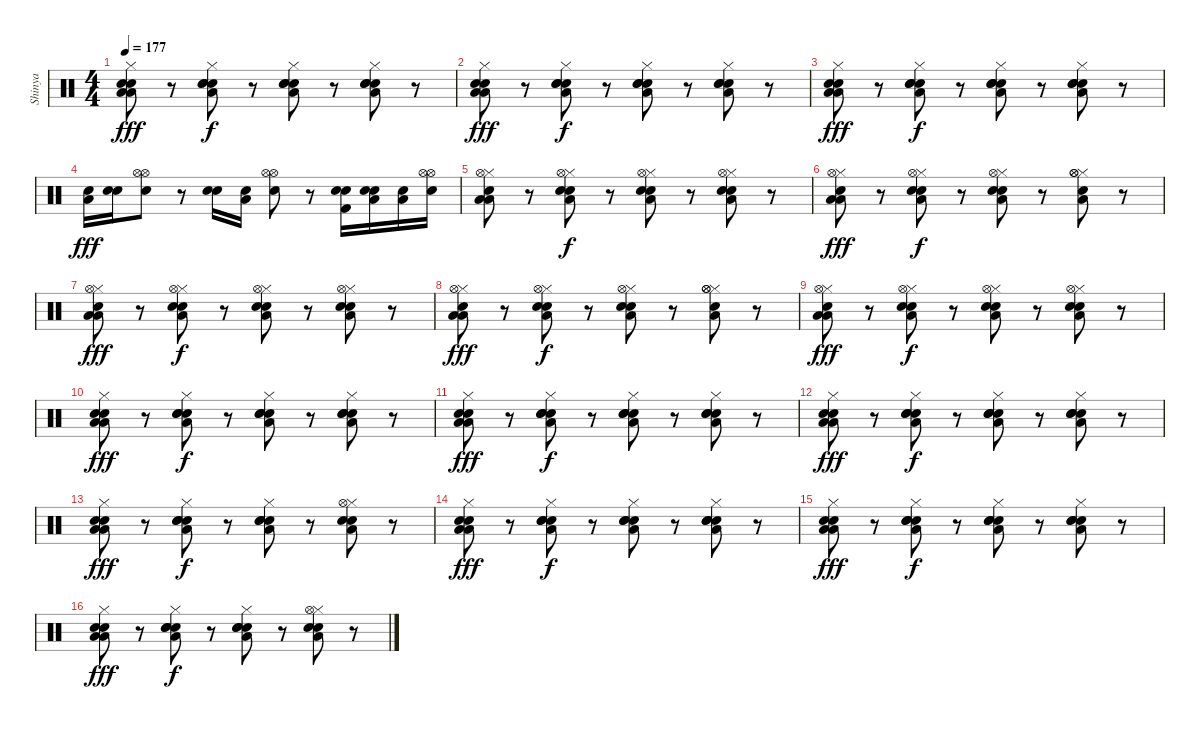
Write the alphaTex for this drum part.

\track ("Shinya " "Shinya ") {instrument percussion}
\staff {score}
\articulation defaults
\ts (4 4)
\tempo 177
\clef neutral
\ks c
("Hi-Hat (closed)" "Electric Snare (hit)" "Low Tom (hit)" "Electric Snare (hit)" "Low Tom (hit)").8{dy fff} r.8 ("Hi-Hat (closed)" "Electric Snare (hit)" "Low Tom (hit)" "Electric Snare (hit)" "Snare (hit) 2").8{dy f} r.8 ("Hi-Hat (closed)" "Electric Snare (hit)" "Electric Snare (hit)" "Snare (hit) 2" "Low Tom (hit)").8 r.8 ("Hi-Hat (closed)" "Electric Snare (hit)" "Electric Snare (hit)" "Electric Snare (hit)" "Low Tom (hit)").8 r.8 |
("Hi-Hat (closed)" "Electric Snare (hit)" "Low Tom (hit)" "Electric Snare (hit)" "Low Tom (hit)").8{dy fff} r.8 ("Hi-Hat (closed)" "Electric Snare (hit)" "Low Tom (hit)" "Electric Snare (hit)" "Snare (hit) 2").8{dy f} r.8 ("Hi-Hat (closed)" "Electric Snare (hit)" "Electric Snare (hit)" "Snare (hit) 2" "Low Tom (hit)").8 r.8 ("Hi-Hat (closed)" "Electric Snare (hit)" "Electric Snare (hit)" "Low Tom (hit)" "Electric Snare (hit)").8 r.8 |
("Hi-Hat (closed)" "Electric Snare (hit)" "Low Tom (hit)" "Electric Snare (hit)" "Low Tom (hit)").8{dy fff} r.8 ("Hi-Hat (closed)" "Electric Snare (hit)" "Low Tom (hit)" "Electric Snare (hit)" "Snare (hit) 2").8{dy f} r.8 ("Hi-Hat (closed)" "Electric Snare (hit)" "Electric Snare (hit)" "Snare (hit) 2" "Low Tom (hit)").8 r.8 ("Hi-Hat (closed)" "Electric Snare (hit)" "Electric Snare (hit)" "Electric Snare (hit)" "Low Tom (hit)").8 r.8 |
("Electric Snare (hit)" "Low Tom (hit)").16{dy fff} ("Electric Snare (hit)" "Electric Snare (hit)").16 ("Hi-Hat (open)" "Hi-Hat (open)" "Electric Snare (hit)").8 r.8 ("Electric Snare (hit)" "Electric Snare (hit)").16 ("Snare (hit) 2" "Low Tom (hit)").16 ("Hi-Hat (open)" "Hi-Hat (open)" "Electric Snare (hit)").8 r.8 ("Electric Snare (hit)" "Kick (hit) 2" "Electric Snare (hit)").16 ("Electric Snare (hit)" "Low Tom (hit)" "Electric Snare (hit)").16 ("Electric Snare (hit)" "Low Tom (hit)").16 ("Hi-Hat (open)" "Hi-Hat (open)" "Electric Snare (hit)").16 |
("Hi-Hat (closed)" "Electric Snare (hit)" "Low Tom (hit)" "Hi-Hat (open)" "Low Tom (hit)").8 r.8 ("Hi-Hat (closed)" "Electric Snare (hit)" "Low Tom (hit)" "Hi-Hat (open)" "Snare (hit) 2").8{dy f} r.8 ("Hi-Hat (closed)" "Electric Snare (hit)" "Hi-Hat (open)" "Snare (hit) 2" "Low Tom (hit)").8 r.8 ("Hi-Hat (closed)" "Electric Snare (hit)" "Hi-Hat (open)" "Low Tom (hit)" "Electric Snare (hit)").8 r.8 |
("Hi-Hat (closed)" "Electric Snare (hit)" "Low Tom (hit)" "Hi-Hat (open)" "Low Tom (hit)").8{dy fff} r.8 ("Hi-Hat (closed)" "Electric Snare (hit)" "Low Tom (hit)" "Hi-Hat (open)" "Snare (hit) 2").8{dy f} r.8 ("Hi-Hat (closed)" "Electric Snare (hit)" "Hi-Hat (open)" "Snare (hit) 2" "Low Tom (hit)").8 r.8 ("Hi-Hat (closed)" "Hi-Hat (open)" "Electric Snare (hit)" "Hi-Hat (open)" "Low Tom (hit)").8 r.8 |
("Hi-Hat (closed)" "Electric Snare (hit)" "Low Tom (hit)" "Hi-Hat (open)" "Low Tom (hit)").8{dy fff} r.8 ("Hi-Hat (closed)" "Electric Snare (hit)" "Low Tom (hit)" "Hi-Hat (open)" "Snare (hit) 2").8{dy f} r.8 ("Hi-Hat (closed)" "Electric Snare (hit)" "Electric Snare (hit)" "Hi-Hat (open)" "Low Tom (hit)").8 r.8 ("Hi-Hat (closed)" "Electric Snare (hit)" "Electric Snare (hit)" "Hi-Hat (open)" "Low Tom (hit)").8 r.8 |
("Hi-Hat (closed)" "Electric Snare (hit)" "Low Tom (hit)" "Hi-Hat (open)" "Low Tom (hit)").8{dy fff} r.8 ("Hi-Hat (closed)" "Electric Snare (hit)" "Low Tom (hit)" "Hi-Hat (open)" "Snare (hit) 2").8{dy f} r.8 ("Hi-Hat (closed)" "Electric Snare (hit)" "Hi-Hat (open)" "Snare (hit) 2" "Low Tom (hit)").8 r.8 ("Hi-Hat (closed)" "Hi-Hat (open)" "Electric Snare (hit)" "Hi-Hat (open)" "Low Tom (hit)").8 r.8 |
("Hi-Hat (closed)" "Electric Snare (hit)" "Low Tom (hit)" "Hi-Hat (open)" "Low Tom (hit)").8{dy fff} r.8 ("Hi-Hat (closed)" "Electric Snare (hit)" "Low Tom (hit)" "Hi-Hat (open)" "Snare (hit) 2").8{dy f} r.8 ("Hi-Hat (closed)" "Electric Snare (hit)" "Electric Snare (hit)" "Hi-Hat (open)" "Low Tom (hit)").8 r.8 ("Hi-Hat (closed)" "Electric Snare (hit)" "Electric Snare (hit)" "Hi-Hat (open)" "Low Tom (hit)").8 r.8 |
("Hi-Hat (closed)" "Electric Snare (hit)" "Low Tom (hit)" "Electric Snare (hit)" "Low Tom (hit)").8{dy fff} r.8 ("Hi-Hat (closed)" "Electric Snare (hit)" "Low Tom (hit)" "Electric Snare (hit)" "Snare (hit) 2").8{dy f} r.8 ("Hi-Hat (closed)" "Electric Snare (hit)" "Electric Snare (hit)" "Snare (hit) 2" "Low Tom (hit)").8 r.8 ("Hi-Hat (closed)" "Electric Snare (hit)" "Electric Snare (hit)" "Low Tom (hit)" "Electric Snare (hit)").8 r.8 |
("Hi-Hat (closed)" "Electric Snare (hit)" "Low Tom (hit)" "Electric Snare (hit)" "Low Tom (hit)").8{dy fff} r.8 ("Hi-Hat (closed)" "Electric Snare (hit)" "Low Tom (hit)" "Electric Snare (hit)" "Snare (hit) 2").8{dy f} r.8 ("Hi-Hat (closed)" "Electric Snare (hit)" "Electric Snare (hit)" "Snare (hit) 2" "Low Tom (hit)").8 r.8 ("Hi-Hat (closed)" "Electric Snare (hit)" "Electric Snare (hit)" "Electric Snare (hit)" "Low Tom (hit)").8 r.8 |
("Hi-Hat (closed)" "Electric Snare (hit)" "Low Tom (hit)" "Electric Snare (hit)" "Low Tom (hit)").8{dy fff} r.8 ("Hi-Hat (closed)" "Electric Snare (hit)" "Low Tom (hit)" "Electric Snare (hit)" "Snare (hit) 2").8{dy f} r.8 ("Hi-Hat (closed)" "Electric Snare (hit)" "Electric Snare (hit)" "Snare (hit) 2" "Low Tom (hit)").8 r.8 ("Hi-Hat (closed)" "Electric Snare (hit)" "Electric Snare (hit)" "Low Tom (hit)" "Electric Snare (hit)").8 r.8 |
("Hi-Hat (closed)" "Electric Snare (hit)" "Low Tom (hit)" "Electric Snare (hit)" "Low Tom (hit)").8{dy fff} r.8 ("Hi-Hat (closed)" "Electric Snare (hit)" "Low Tom (hit)" "Electric Snare (hit)" "Snare (hit) 2").8{dy f} r.8 ("Hi-Hat (closed)" "Electric Snare (hit)" "Electric Snare (hit)" "Snare (hit) 2" "Low Tom (hit)").8 r.8 ("Hi-Hat (closed)" "Hi-Hat (open)" "Electric Snare (hit)" "Electric Snare (hit)" "Low Tom (hit)").8 r.8 |
("Hi-Hat (closed)" "Electric Snare (hit)" "Low Tom (hit)" "Electric Snare (hit)" "Low Tom (hit)").8{dy fff} r.8 ("Hi-Hat (closed)" "Electric Snare (hit)" "Low Tom (hit)" "Electric Snare (hit)" "Snare (hit) 2").8{dy f} r.8 ("Hi-Hat (closed)" "Electric Snare (hit)" "Electric Snare (hit)" "Snare (hit) 2" "Low Tom (hit)").8 r.8 ("Hi-Hat (closed)" "Electric Snare (hit)" "Electric Snare (hit)" "Electric Snare (hit)" "Low Tom (hit)").8 r.8 |
("Hi-Hat (closed)" "Electric Snare (hit)" "Low Tom (hit)" "Electric Snare (hit)" "Low Tom (hit)").8{dy fff} r.8 ("Hi-Hat (closed)" "Electric Snare (hit)" "Low Tom (hit)" "Electric Snare (hit)" "Snare (hit) 2").8{dy f} r.8 ("Hi-Hat (closed)" "Electric Snare (hit)" "Electric Snare (hit)" "Snare (hit) 2" "Low Tom (hit)").8 r.8 ("Hi-Hat (closed)" "Electric Snare (hit)" "Electric Snare (hit)" "Low Tom (hit)" "Electric Snare (hit)").8 r.8 |
("Hi-Hat (closed)" "Electric Snare (hit)" "Low Tom (hit)" "Electric Snare (hit)" "Low Tom (hit)").8{dy fff} r.8 ("Hi-Hat (closed)" "Electric Snare (hit)" "Low Tom (hit)" "Electric Snare (hit)" "Snare (hit) 2").8{dy f} r.8 ("Hi-Hat (closed)" "Electric Snare (hit)" "Electric Snare (hit)" "Snare (hit) 2" "Low Tom (hit)").8 r.8 ("Hi-Hat (closed)" "Hi-Hat (open)" "Electric Snare (hit)" "Electric Snare (hit)" "Low Tom (hit)").8 r.8
